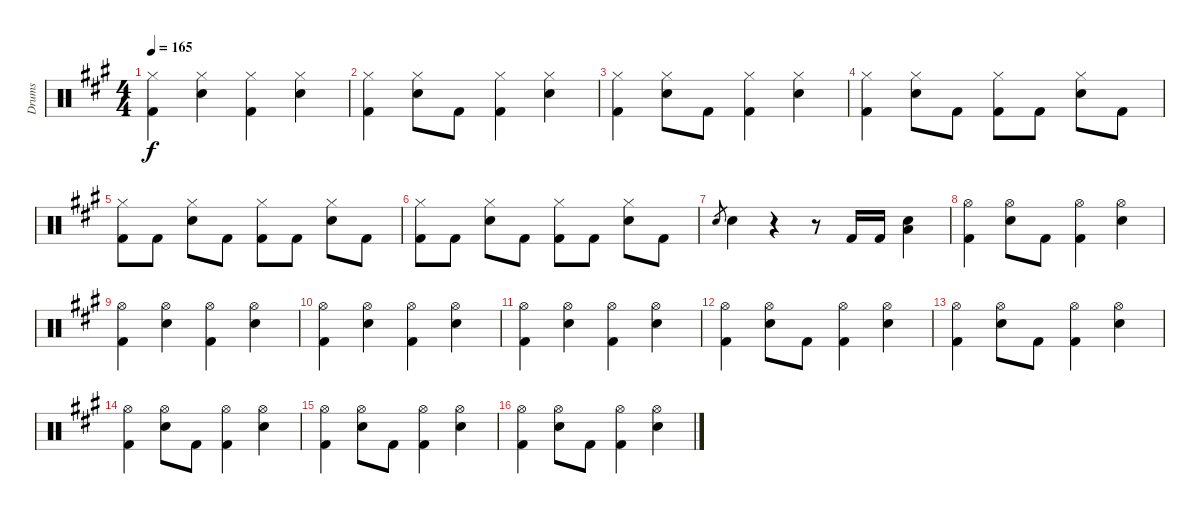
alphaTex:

\track ("Drums" "Drums") {instrument percussion}
\staff {score}
\articulation defaults
\ts (4 4)
\tempo 165
\clef neutral
\ks a
("Hi-Hat (closed)" "Kick (hit) 2").4{dy f} ("Hi-Hat (closed)" "Electric Snare (hit)").4 ("Hi-Hat (closed)" "Kick (hit) 2").4 ("Hi-Hat (closed)" "Electric Snare (hit)").4 |
("Hi-Hat (closed)" "Kick (hit) 2").4 ("Hi-Hat (closed)" "Electric Snare (hit)").8 "Kick (hit) 2".8 ("Hi-Hat (closed)" "Kick (hit) 2").4 ("Hi-Hat (closed)" "Electric Snare (hit)").4 |
("Hi-Hat (closed)" "Kick (hit) 2").4 ("Hi-Hat (closed)" "Electric Snare (hit)").8 "Kick (hit) 2".8 ("Hi-Hat (closed)" "Kick (hit) 2").4 ("Hi-Hat (closed)" "Electric Snare (hit)").4 |
("Hi-Hat (closed)" "Kick (hit) 2").4 ("Hi-Hat (closed)" "Electric Snare (hit)").8 "Kick (hit) 2".8 ("Hi-Hat (closed)" "Kick (hit) 2").8 "Kick (hit) 2".8 ("Hi-Hat (closed)" "Electric Snare (hit)").8 "Kick (hit) 2".8 |
("Hi-Hat (closed)" "Kick (hit) 2").8 "Kick (hit) 2".8 ("Hi-Hat (closed)" "Electric Snare (hit)").8 "Kick (hit) 2".8 ("Hi-Hat (closed)" "Kick (hit) 2").8 "Kick (hit) 2".8 ("Hi-Hat (closed)" "Electric Snare (hit)").8 "Kick (hit) 2".8 |
("Hi-Hat (closed)" "Kick (hit) 2").8 "Kick (hit) 2".8 ("Hi-Hat (closed)" "Electric Snare (hit)").8 "Kick (hit) 2".8 ("Hi-Hat (closed)" "Kick (hit) 2").8 "Kick (hit) 2".8 ("Hi-Hat (closed)" "Electric Snare (hit)").8 "Kick (hit) 2".8 |
"Electric Snare (hit)".8{gr} "Electric Snare (hit)".4 r.4 r.8 "Kick (hit) 2".16 "Kick (hit) 2".16 ("Low Tom (hit)" "Electric Snare (hit)").4 |
("Hi-Hat (open)" "Kick (hit) 2").4 ("Hi-Hat (open)" "Electric Snare (hit)").8 "Kick (hit) 2".8 ("Hi-Hat (open)" "Kick (hit) 2").4 ("Hi-Hat (open)" "Electric Snare (hit)").4 |
("Hi-Hat (open)" "Kick (hit) 2").4 ("Hi-Hat (open)" "Electric Snare (hit)").4 ("Hi-Hat (open)" "Kick (hit) 2").4 ("Hi-Hat (open)" "Electric Snare (hit)").4 |
("Hi-Hat (open)" "Kick (hit) 2").4 ("Hi-Hat (open)" "Electric Snare (hit)").4 ("Hi-Hat (open)" "Kick (hit) 2").4 ("Hi-Hat (open)" "Electric Snare (hit)").4 |
("Hi-Hat (open)" "Kick (hit) 2").4 ("Hi-Hat (open)" "Electric Snare (hit)").4 ("Hi-Hat (open)" "Kick (hit) 2").4 ("Hi-Hat (open)" "Electric Snare (hit)").4 |
("Hi-Hat (open)" "Kick (hit) 2").4 ("Hi-Hat (open)" "Electric Snare (hit)").8 "Kick (hit) 2".8 ("Hi-Hat (open)" "Kick (hit) 2").4 ("Hi-Hat (open)" "Electric Snare (hit)").4 |
("Hi-Hat (open)" "Kick (hit) 2").4 ("Hi-Hat (open)" "Electric Snare (hit)").8 "Kick (hit) 2".8 ("Hi-Hat (open)" "Kick (hit) 2").4 ("Hi-Hat (open)" "Electric Snare (hit)").4 |
("Hi-Hat (open)" "Kick (hit) 2").4 ("Hi-Hat (open)" "Electric Snare (hit)").8 "Kick (hit) 2".8 ("Hi-Hat (open)" "Kick (hit) 2").4 ("Hi-Hat (open)" "Electric Snare (hit)").4 |
("Hi-Hat (open)" "Kick (hit) 2").4 ("Hi-Hat (open)" "Electric Snare (hit)").8 "Kick (hit) 2".8 ("Hi-Hat (open)" "Kick (hit) 2").4 ("Hi-Hat (open)" "Electric Snare (hit)").4 |
("Hi-Hat (open)" "Kick (hit) 2").4 ("Hi-Hat (open)" "Electric Snare (hit)").8 "Kick (hit) 2".8 ("Hi-Hat (open)" "Kick (hit) 2").4 ("Hi-Hat (open)" "Electric Snare (hit)").4
